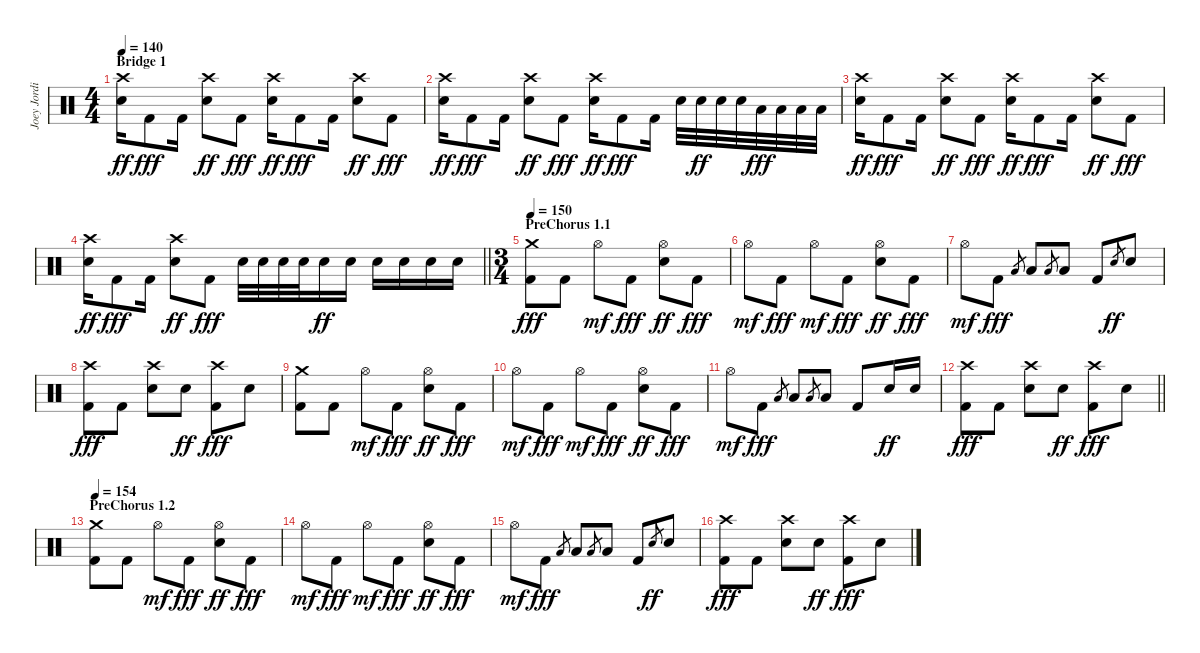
\track ("Joey Jordison" "Joey Jordi") {instrument percussion}
\staff {score}
\articulation defaults
\ts (4 4)
\section ("" "Bridge 1")
\tempo 140
\clef neutral
\ks c
("Crash high (hit)" "Electric Snare (hit)").16{dy ff} "Kick (hit) 2".8{dy fff} "Kick (hit) 2".16 ("Crash high (hit)" "Electric Snare (hit)").8{dy ff} "Kick (hit) 2".8{dy fff} ("Crash high (hit)" "Electric Snare (hit)").16{dy ff} "Kick (hit) 2".8{dy fff} "Kick (hit) 2".16 ("Crash high (hit)" "Electric Snare (hit)").8{dy ff} "Kick (hit) 2".8{dy fff} |
("Crash high (hit)" "Electric Snare (hit)").16{dy ff} "Kick (hit) 2".8{dy fff} "Kick (hit) 2".16 ("Crash high (hit)" "Electric Snare (hit)").8{dy ff} "Kick (hit) 2".8{dy fff} ("Crash high (hit)" "Electric Snare (hit)").16{dy ff} "Kick (hit) 2".8{dy fff} "Kick (hit) 2".16 "Electric Snare (hit)".32 "Electric Snare (hit)".32{dy ff} "Electric Snare (hit)".32 "Electric Snare (hit)".32 "Low Tom (hit)".32{dy fff} "Low Tom (hit)".32 "Low Tom (hit)".32 "Low Tom (hit)".32 |
("Crash high (hit)" "Electric Snare (hit)").16{dy ff} "Kick (hit) 2".8{dy fff} "Kick (hit) 2".16 ("Crash high (hit)" "Electric Snare (hit)").8{dy ff} "Kick (hit) 2".8{dy fff} ("Crash high (hit)" "Electric Snare (hit)").16{dy ff} "Kick (hit) 2".8{dy fff} "Kick (hit) 2".16 ("Crash high (hit)" "Electric Snare (hit)").8{dy ff} "Kick (hit) 2".8{dy fff} |
\barLineRight lightlight
("Crash high (hit)" "Electric Snare (hit)").16{dy ff} "Kick (hit) 2".8{dy fff} "Kick (hit) 2".16 ("Crash high (hit)" "Electric Snare (hit)").8{dy ff} "Kick (hit) 2".8{dy fff} "Electric Snare (hit)".32 "Electric Snare (hit)".32 "Electric Snare (hit)".32 "Electric Snare (hit)".32 "Electric Snare (hit)".16{dy ff} "Electric Snare (hit)".16 "Electric Snare (hit)".16 "Electric Snare (hit)".16 "Electric Snare (hit)".16 "Electric Snare (hit)".16 |
\ts (3 4)
\section ("" "PreChorus 1.1")
\tempo 150
("Crash medium (hit)" "Kick (hit) 2").8{dy fff} "Kick (hit) 2".8 "Hi-Hat (open)".8{dy mf} "Kick (hit) 2".8{dy fff} ("Hi-Hat (open)" "Electric Snare (hit)").8{dy ff} "Kick (hit) 2".8{dy fff} |
"Hi-Hat (open)".8{dy mf} "Kick (hit) 2".8{dy fff} "Hi-Hat (open)".8{dy mf} "Kick (hit) 2".8{dy fff} ("Hi-Hat (open)" "Electric Snare (hit)").8{dy ff} "Kick (hit) 2".8{dy fff} |
"Hi-Hat (open)".8{dy mf} "Kick (hit) 2".8{dy fff} "Low Tom (hit)".8{gr} "Low Tom (hit)".8 "Low Floor Tom (hit)".8{gr} "Low Floor Tom (hit)".8 "Kick (hit) 2".8 "Electric Snare (hit)".8{gr dy ff} "Electric Snare (hit)".8 |
("Crash high (hit)" "Kick (hit) 2").8{dy fff} "Kick (hit) 2".8 ("Crash high (hit)" "Electric Snare (hit)").8 "Electric Snare (hit)".8{dy ff} ("Crash high (hit)" "Kick (hit) 2").8{dy fff} "Electric Snare (hit)".8 |
("Crash medium (hit)" "Kick (hit) 2").8 "Kick (hit) 2".8 "Hi-Hat (open)".8{dy mf} "Kick (hit) 2".8{dy fff} ("Hi-Hat (open)" "Electric Snare (hit)").8{dy ff} "Kick (hit) 2".8{dy fff} |
"Hi-Hat (open)".8{dy mf} "Kick (hit) 2".8{dy fff} "Hi-Hat (open)".8{dy mf} "Kick (hit) 2".8{dy fff} ("Hi-Hat (open)" "Electric Snare (hit)").8{dy ff} "Kick (hit) 2".8{dy fff} |
"Hi-Hat (open)".8{dy mf} "Kick (hit) 2".8{dy fff} "Low Tom (hit)".8{gr} "Low Tom (hit)".8 "Low Floor Tom (hit)".8{gr} "Low Floor Tom (hit)".8 "Kick (hit) 2".8 "Electric Snare (hit)".16{dy ff} "Electric Snare (hit)".16 |
\barLineRight lightlight
("Crash high (hit)" "Kick (hit) 2").8{dy fff} "Kick (hit) 2".8 ("Crash high (hit)" "Electric Snare (hit)").8 "Electric Snare (hit)".8{dy ff} ("Crash high (hit)" "Kick (hit) 2").8{dy fff} "Electric Snare (hit)".8 |
\section ("" "PreChorus 1.2")
\tempo 154
("Crash medium (hit)" "Kick (hit) 2").8 "Kick (hit) 2".8 "Hi-Hat (open)".8{dy mf} "Kick (hit) 2".8{dy fff} ("Hi-Hat (open)" "Electric Snare (hit)").8{dy ff} "Kick (hit) 2".8{dy fff} |
"Hi-Hat (open)".8{dy mf} "Kick (hit) 2".8{dy fff} "Hi-Hat (open)".8{dy mf} "Kick (hit) 2".8{dy fff} ("Hi-Hat (open)" "Electric Snare (hit)").8{dy ff} "Kick (hit) 2".8{dy fff} |
"Hi-Hat (open)".8{dy mf} "Kick (hit) 2".8{dy fff} "Low Tom (hit)".8{gr} "Low Tom (hit)".8 "Low Floor Tom (hit)".8{gr} "Low Floor Tom (hit)".8 "Kick (hit) 2".8 "Electric Snare (hit)".8{gr dy ff} "Electric Snare (hit)".8 |
("Crash high (hit)" "Kick (hit) 2").8{dy fff} "Kick (hit) 2".8 ("Crash high (hit)" "Electric Snare (hit)").8 "Electric Snare (hit)".8{dy ff} ("Crash high (hit)" "Kick (hit) 2").8{dy fff} "Electric Snare (hit)".8
